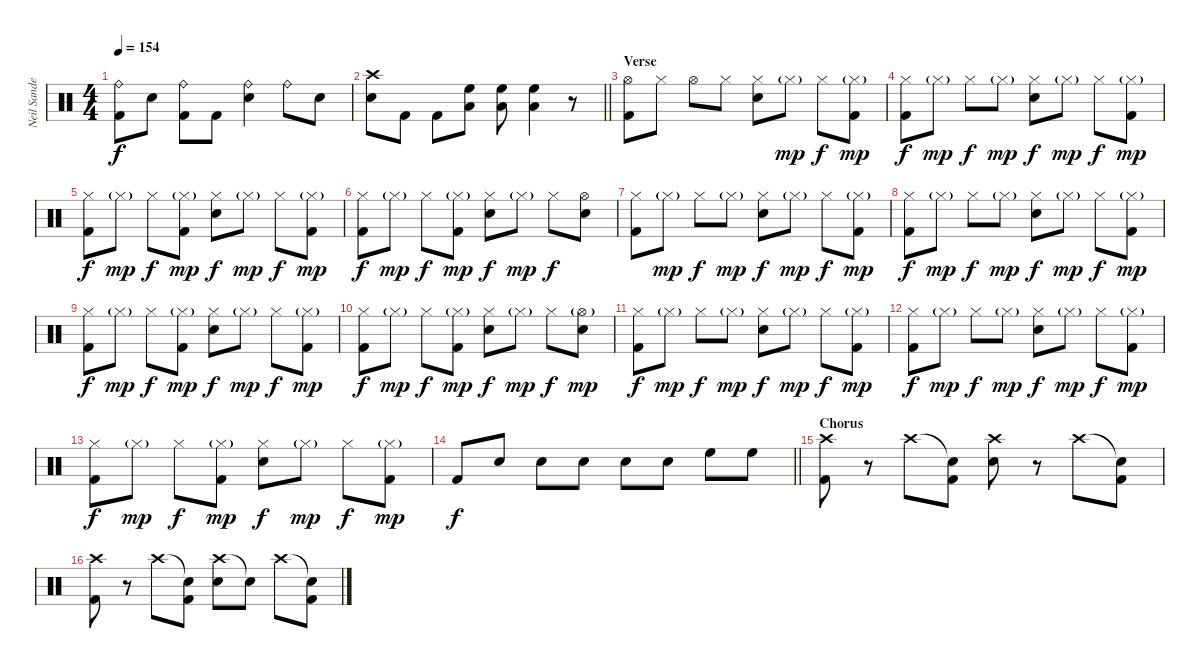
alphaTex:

\track ("Neil Sanderson" "Neil Sande") {instrument percussion}
\staff {score}
\articulation defaults
\ts (4 4)
\tempo 154
\clef neutral
\ks c
("Ride (bell)" "Kick (hit) 2").8{dy f} "Snare (hit) 2".8 ("Ride (bell)" "Kick (hit) 2").8 "Kick (hit) 2".8 ("Ride (bell)" "Snare (hit) 2").4 "Ride (bell)".8 "Snare (hit) 2".8 |
\barLineRight lightlight
("Crash high (hit)" "Snare (hit) 2").8 "Kick (hit) 2".8 "Kick (hit) 2".8 ("High Floor Tom (hit)" "Low Tom (hit)").8 ("High Floor Tom (hit)" "Low Tom (hit)").8 ("High Floor Tom (hit)" "Low Tom (hit)").4 r.8 |
\section ("" "Verse")
("Hi-Hat (open)" "Kick (hit) 2").8 "Hi-Hat (closed)".8 "Hi-Hat (open)".8 "Hi-Hat (closed)".8 ("Hi-Hat (closed)" "Snare (hit) 2").8 "Hi-Hat (closed)"{g}.8{dy mp} "Hi-Hat (closed)".8{dy f} ("Hi-Hat (closed)"{g} "Kick (hit) 2").8{dy mp} |
("Hi-Hat (closed)" "Kick (hit) 2").8{dy f} "Hi-Hat (closed)"{g}.8{dy mp} "Hi-Hat (closed)".8{dy f} "Hi-Hat (closed)"{g}.8{dy mp} ("Hi-Hat (closed)" "Snare (hit) 2").8{dy f} "Hi-Hat (closed)"{g}.8{dy mp} "Hi-Hat (closed)".8{dy f} ("Hi-Hat (closed)"{g} "Kick (hit) 2").8{dy mp} |
("Hi-Hat (closed)" "Kick (hit) 2").8{dy f} "Hi-Hat (closed)"{g}.8{dy mp} "Hi-Hat (closed)".8{dy f} ("Hi-Hat (closed)"{g} "Kick (hit) 2").8{dy mp} ("Hi-Hat (closed)" "Snare (hit) 2").8{dy f} "Hi-Hat (closed)"{g}.8{dy mp} "Hi-Hat (closed)".8{dy f} ("Hi-Hat (closed)"{g} "Kick (hit) 2").8{dy mp} |
("Hi-Hat (closed)" "Kick (hit) 2").8{dy f} "Hi-Hat (closed)"{g}.8{dy mp} "Hi-Hat (closed)".8{dy f} ("Hi-Hat (closed)"{g} "Kick (hit) 2").8{dy mp} ("Hi-Hat (closed)" "Snare (hit) 2").8{dy f} "Hi-Hat (closed)"{g}.8{dy mp} "Hi-Hat (closed)".8{dy f} ("Hi-Hat (open)" "Snare (hit) 2").8 |
("Hi-Hat (closed)" "Kick (hit) 2").8 "Hi-Hat (closed)"{g}.8{dy mp} "Hi-Hat (closed)".8{dy f} "Hi-Hat (closed)"{g}.8{dy mp} ("Hi-Hat (closed)" "Snare (hit) 2").8{dy f} "Hi-Hat (closed)"{g}.8{dy mp} "Hi-Hat (closed)".8{dy f} ("Hi-Hat (closed)"{g} "Kick (hit) 2").8{dy mp} |
("Hi-Hat (closed)" "Kick (hit) 2").8{dy f} "Hi-Hat (closed)"{g}.8{dy mp} "Hi-Hat (closed)".8{dy f} "Hi-Hat (closed)"{g}.8{dy mp} ("Hi-Hat (closed)" "Snare (hit) 2").8{dy f} "Hi-Hat (closed)"{g}.8{dy mp} "Hi-Hat (closed)".8{dy f} ("Hi-Hat (closed)"{g} "Kick (hit) 2").8{dy mp} |
("Hi-Hat (closed)" "Kick (hit) 2").8{dy f} "Hi-Hat (closed)"{g}.8{dy mp} "Hi-Hat (closed)".8{dy f} ("Hi-Hat (closed)"{g} "Kick (hit) 2").8{dy mp} ("Hi-Hat (closed)" "Snare (hit) 2").8{dy f} "Hi-Hat (closed)"{g}.8{dy mp} "Hi-Hat (closed)".8{dy f} ("Hi-Hat (closed)"{g} "Kick (hit) 2").8{dy mp} |
("Hi-Hat (closed)" "Kick (hit) 2").8{dy f} "Hi-Hat (closed)"{g}.8{dy mp} "Hi-Hat (closed)".8{dy f} ("Hi-Hat (closed)"{g} "Kick (hit) 2").8{dy mp} ("Hi-Hat (closed)" "Snare (hit) 2").8{dy f} "Hi-Hat (closed)"{g}.8{dy mp} "Hi-Hat (closed)".8{dy f} ("Hi-Hat (open)"{g} "Snare (hit) 2").8{dy mp} |
("Hi-Hat (closed)" "Kick (hit) 2").8{dy f} "Hi-Hat (closed)"{g}.8{dy mp} "Hi-Hat (closed)".8{dy f} "Hi-Hat (closed)"{g}.8{dy mp} ("Hi-Hat (closed)" "Snare (hit) 2").8{dy f} "Hi-Hat (closed)"{g}.8{dy mp} "Hi-Hat (closed)".8{dy f} ("Hi-Hat (closed)"{g} "Kick (hit) 2").8{dy mp} |
("Hi-Hat (closed)" "Kick (hit) 2").8{dy f} "Hi-Hat (closed)"{g}.8{dy mp} "Hi-Hat (closed)".8{dy f} "Hi-Hat (closed)"{g}.8{dy mp} ("Hi-Hat (closed)" "Snare (hit) 2").8{dy f} "Hi-Hat (closed)"{g}.8{dy mp} "Hi-Hat (closed)".8{dy f} ("Hi-Hat (closed)"{g} "Kick (hit) 2").8{dy mp} |
("Hi-Hat (closed)" "Kick (hit) 2").8{dy f} "Hi-Hat (closed)"{g}.8{dy mp} "Hi-Hat (closed)".8{dy f} ("Hi-Hat (closed)"{g} "Kick (hit) 2").8{dy mp} ("Hi-Hat (closed)" "Snare (hit) 2").8{dy f} "Hi-Hat (closed)"{g}.8{dy mp} "Hi-Hat (closed)".8{dy f} ("Hi-Hat (closed)"{g} "Kick (hit) 2").8{dy mp} |
\barLineRight lightlight "Kick (hit) 2".8{dy f} "Snare (hit) 2".8 "Snare (hit) 2".8 "Snare (hit) 2".8 "Snare (hit) 2".8 "Snare (hit) 2".8 "High Floor Tom (hit)".8 "High Floor Tom (hit)".8
|
\section ("" "Chorus")
("Crash high (hit)" "Kick (hit) 2").8 r.8 "Crash high (hit)".8 ("Snare (hit)"{t} "Kick (hit) 2").8 ("Crash high (hit)" "Snare (hit) 2").8 r.8 "Crash high (hit)".8 ("Snare (hit)"{t} "Kick (hit) 2").8 |
("Crash high (hit)" "Kick (hit) 2").8 r.8 "Crash high (hit)".8 ("Snare (hit)"{t} "Kick (hit) 2").8 ("Crash high (hit)" "Snare (hit) 2").8 "Snare (hit)"{t}.8 "Crash high (hit)".8 ("Snare (hit)"{t} "Kick (hit) 2").8
